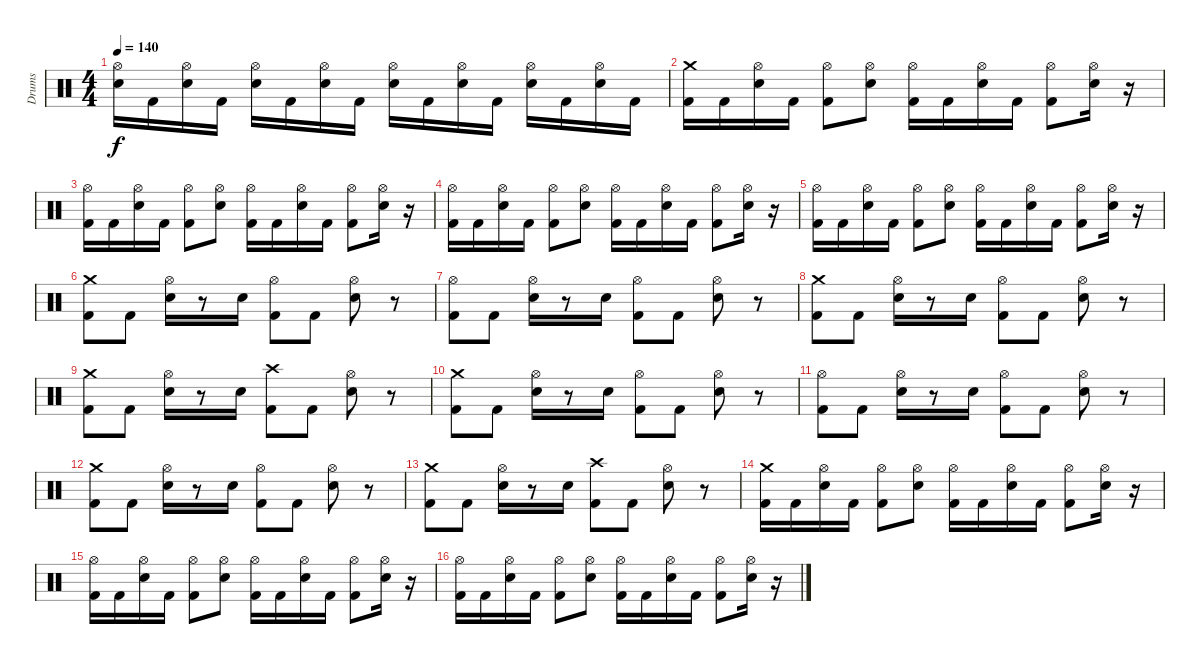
\track ("Drums" "Drums") {instrument percussion}
\staff {score}
\articulation defaults
\ts (4 4)
\tempo 140
\clef neutral
\ks c
("Electric Snare (hit)" "Hi-Hat (open)").16{dy f} "Kick (hit) 2".16 ("Electric Snare (hit)" "Hi-Hat (open)").16 "Kick (hit) 2".16 ("Electric Snare (hit)" "Hi-Hat (open)").16 "Kick (hit) 2".16 ("Electric Snare (hit)" "Hi-Hat (open)").16 "Kick (hit) 2".16 ("Electric Snare (hit)" "Hi-Hat (open)").16 "Kick (hit) 2".16 ("Electric Snare (hit)" "Hi-Hat (open)").16 "Kick (hit) 2".16 ("Electric Snare (hit)" "Hi-Hat (open)").16 "Kick (hit) 2".16 ("Electric Snare (hit)" "Hi-Hat (open)").16 "Kick (hit) 2".16 |
("Kick (hit) 2" "Crash medium (hit)").16 "Kick (hit) 2".16 ("Electric Snare (hit)" "Hi-Hat (open)").16 "Kick (hit) 2".16 ("Kick (hit) 2" "Hi-Hat (open)").8 ("Electric Snare (hit)" "Hi-Hat (open)").8 ("Kick (hit) 2" "Hi-Hat (open)").16 "Kick (hit) 2".16 ("Electric Snare (hit)" "Hi-Hat (open)").16 "Kick (hit) 2".16 ("Kick (hit) 2" "Hi-Hat (open)").8 ("Electric Snare (hit)" "Hi-Hat (open)").16 r.16 |
("Kick (hit) 2" "Hi-Hat (open)").16 "Kick (hit) 2".16 ("Electric Snare (hit)" "Hi-Hat (open)").16 "Kick (hit) 2".16 ("Kick (hit) 2" "Hi-Hat (open)").8 ("Electric Snare (hit)" "Hi-Hat (open)").8 ("Kick (hit) 2" "Hi-Hat (open)").16 "Kick (hit) 2".16 ("Electric Snare (hit)" "Hi-Hat (open)").16 "Kick (hit) 2".16 ("Kick (hit) 2" "Hi-Hat (open)").8 ("Electric Snare (hit)" "Hi-Hat (open)").16 r.16 |
("Kick (hit) 2" "Hi-Hat (open)").16 "Kick (hit) 2".16 ("Electric Snare (hit)" "Hi-Hat (open)").16 "Kick (hit) 2".16 ("Kick (hit) 2" "Hi-Hat (open)").8 ("Electric Snare (hit)" "Hi-Hat (open)").8 ("Kick (hit) 2" "Hi-Hat (open)").16 "Kick (hit) 2".16 ("Electric Snare (hit)" "Hi-Hat (open)").16 "Kick (hit) 2".16 ("Kick (hit) 2" "Hi-Hat (open)").8 ("Electric Snare (hit)" "Hi-Hat (open)").16 r.16 |
("Kick (hit) 2" "Hi-Hat (open)").16 "Kick (hit) 2".16 ("Electric Snare (hit)" "Hi-Hat (open)").16 "Kick (hit) 2".16 ("Kick (hit) 2" "Hi-Hat (open)").8 ("Electric Snare (hit)" "Hi-Hat (open)").8 ("Kick (hit) 2" "Hi-Hat (open)").16 "Kick (hit) 2".16 ("Electric Snare (hit)" "Hi-Hat (open)").16 "Kick (hit) 2".16 ("Kick (hit) 2" "Hi-Hat (open)").8 ("Electric Snare (hit)" "Hi-Hat (open)").16 r.16 |
("Kick (hit) 2" "Crash medium (hit)").8 "Kick (hit) 2".8 ("Electric Snare (hit)" "Hi-Hat (open)").16 r.8 "Electric Snare (hit)".16 ("Kick (hit) 2" "Hi-Hat (open)").8 "Kick (hit) 2".8 ("Electric Snare (hit)" "Hi-Hat (open)").8 r.8 |
("Kick (hit) 2" "Hi-Hat (open)").8 "Kick (hit) 2".8 ("Electric Snare (hit)" "Hi-Hat (open)").16 r.8 "Electric Snare (hit)".16 ("Kick (hit) 2" "Hi-Hat (open)").8 "Kick (hit) 2".8 ("Electric Snare (hit)" "Hi-Hat (open)").8 r.8 |
("Kick (hit) 2" "Crash medium (hit)").8 "Kick (hit) 2".8 ("Electric Snare (hit)" "Hi-Hat (open)").16 r.8 "Electric Snare (hit)".16 ("Kick (hit) 2" "Hi-Hat (open)").8 "Kick (hit) 2".8 ("Electric Snare (hit)" "Hi-Hat (open)").8 r.8 |
("Kick (hit) 2" "Crash medium (hit)").8 "Kick (hit) 2".8 ("Electric Snare (hit)" "Hi-Hat (open)").16 r.8 "Electric Snare (hit)".16 ("Kick (hit) 2" "Crash high (hit)").8 "Kick (hit) 2".8 ("Electric Snare (hit)" "Hi-Hat (open)").8 r.8 |
("Kick (hit) 2" "Crash medium (hit)").8 "Kick (hit) 2".8 ("Electric Snare (hit)" "Hi-Hat (open)").16 r.8 "Electric Snare (hit)".16 ("Kick (hit) 2" "Hi-Hat (open)").8 "Kick (hit) 2".8 ("Electric Snare (hit)" "Hi-Hat (open)").8 r.8 |
("Kick (hit) 2" "Hi-Hat (open)").8 "Kick (hit) 2".8 ("Electric Snare (hit)" "Hi-Hat (open)").16 r.8 "Electric Snare (hit)".16 ("Kick (hit) 2" "Hi-Hat (open)").8 "Kick (hit) 2".8 ("Electric Snare (hit)" "Hi-Hat (open)").8 r.8 |
("Kick (hit) 2" "Crash medium (hit)").8 "Kick (hit) 2".8 ("Electric Snare (hit)" "Hi-Hat (open)").16 r.8 "Electric Snare (hit)".16 ("Kick (hit) 2" "Hi-Hat (open)").8 "Kick (hit) 2".8 ("Electric Snare (hit)" "Hi-Hat (open)").8 r.8 |
("Kick (hit) 2" "Crash medium (hit)").8 "Kick (hit) 2".8 ("Electric Snare (hit)" "Hi-Hat (open)").16 r.8 "Electric Snare (hit)".16 ("Kick (hit) 2" "Crash high (hit)").8 "Kick (hit) 2".8 ("Electric Snare (hit)" "Hi-Hat (open)").8 r.8 |
("Kick (hit) 2" "Crash medium (hit)").16 "Kick (hit) 2".16 ("Electric Snare (hit)" "Hi-Hat (open)").16 "Kick (hit) 2".16 ("Kick (hit) 2" "Hi-Hat (open)").8 ("Electric Snare (hit)" "Hi-Hat (open)").8 ("Kick (hit) 2" "Hi-Hat (open)").16 "Kick (hit) 2".16 ("Electric Snare (hit)" "Hi-Hat (open)").16 "Kick (hit) 2".16 ("Kick (hit) 2" "Hi-Hat (open)").8 ("Electric Snare (hit)" "Hi-Hat (open)").16 r.16 |
("Kick (hit) 2" "Hi-Hat (open)").16 "Kick (hit) 2".16 ("Electric Snare (hit)" "Hi-Hat (open)").16 "Kick (hit) 2".16 ("Kick (hit) 2" "Hi-Hat (open)").8 ("Electric Snare (hit)" "Hi-Hat (open)").8 ("Kick (hit) 2" "Hi-Hat (open)").16 "Kick (hit) 2".16 ("Electric Snare (hit)" "Hi-Hat (open)").16 "Kick (hit) 2".16 ("Kick (hit) 2" "Hi-Hat (open)").8 ("Electric Snare (hit)" "Hi-Hat (open)").16 r.16 |
("Kick (hit) 2" "Hi-Hat (open)").16 "Kick (hit) 2".16 ("Electric Snare (hit)" "Hi-Hat (open)").16 "Kick (hit) 2".16 ("Kick (hit) 2" "Hi-Hat (open)").8 ("Electric Snare (hit)" "Hi-Hat (open)").8 ("Kick (hit) 2" "Hi-Hat (open)").16 "Kick (hit) 2".16 ("Electric Snare (hit)" "Hi-Hat (open)").16 "Kick (hit) 2".16 ("Kick (hit) 2" "Hi-Hat (open)").8 ("Electric Snare (hit)" "Hi-Hat (open)").16 r.16
